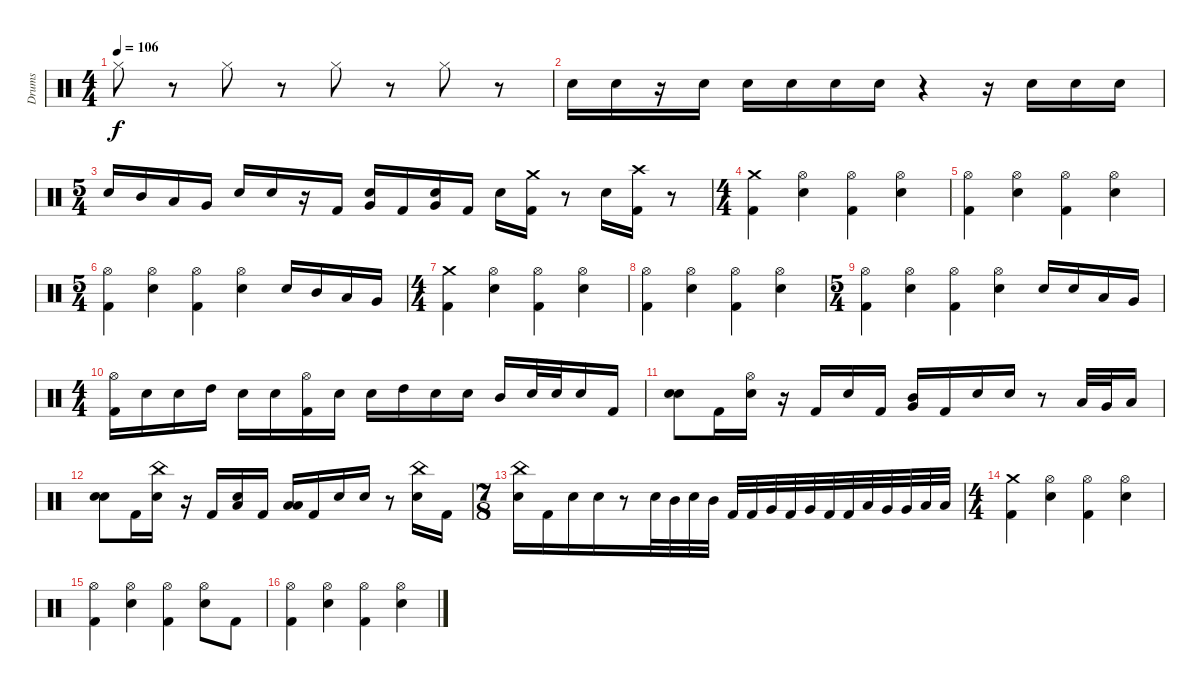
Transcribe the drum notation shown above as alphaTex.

\track ("Drums" "Drums") {instrument percussion}
\staff {score}
\articulation defaults
\ts (4 4)
\tempo 106
\clef neutral
\ks c "Hi-Hat (closed)".8{dy f}
r.8 "Hi-Hat (closed)".8 r.8 "Hi-Hat (closed)".8 r.8 "Hi-Hat (closed)".8 r.8 |
"Electric Snare (hit)".16 "Electric Snare (hit)".16 r.16 "Electric Snare (hit)".16 "Electric Snare (hit)".16 "Electric Snare (hit)".16 "Electric Snare (hit)".16 "Electric Snare (hit)".16 r.4 r.16 "Electric Snare (hit)".16 "Electric Snare (hit)".16 "Electric Snare (hit)".16 |
\ts (5 4)
"Electric Snare (hit)".16 "Mid Tom (hit)".16 "Low Tom (hit)".16 "Very Low Tom (hit)".16 "Electric Snare (hit)".16 "Electric Snare (hit)".16 r.16 "Kick (hit) 2".16 ("Electric Snare (hit)" "Very Low Tom (hit)").16 "Kick (hit) 2".16 ("Electric Snare (hit)" "Very Low Tom (hit)").16 "Kick (hit) 2".16 "Electric Snare (hit)".16 ("Crash medium (hit)" "Kick (hit) 2").16 r.8 "Electric Snare (hit)".16 ("Crash high (hit)" "Kick (hit) 2").16 r.8 |
\ts (4 4)
("Crash medium (hit)" "Kick (hit) 2").4 ("Hi-Hat (open)" "Electric Snare (hit)").4 ("Hi-Hat (open)" "Kick (hit) 2").4 ("Hi-Hat (open)" "Electric Snare (hit)").4 |
("Hi-Hat (open)" "Kick (hit) 2").4 ("Hi-Hat (open)" "Electric Snare (hit)").4 ("Hi-Hat (open)" "Kick (hit) 2").4 ("Hi-Hat (open)" "Electric Snare (hit)").4 |
\ts (5 4)
("Hi-Hat (open)" "Kick (hit) 2").4 ("Hi-Hat (open)" "Electric Snare (hit)").4 ("Hi-Hat (open)" "Kick (hit) 2").4 ("Hi-Hat (open)" "Electric Snare (hit)").4 "Electric Snare (hit)".16 "Mid Tom (hit)".16 "Low Tom (hit)".16 "Very Low Tom (hit)".16 |
\ts (4 4)
("Crash medium (hit)" "Kick (hit) 2").4 ("Hi-Hat (open)" "Electric Snare (hit)").4 ("Hi-Hat (open)" "Kick (hit) 2").4 ("Hi-Hat (open)" "Electric Snare (hit)").4 |
("Hi-Hat (open)" "Kick (hit) 2").4 ("Hi-Hat (open)" "Electric Snare (hit)").4 ("Hi-Hat (open)" "Kick (hit) 2").4 ("Hi-Hat (open)" "Electric Snare (hit)").4 |
\ts (5 4)
("Hi-Hat (open)" "Kick (hit) 2").4 ("Hi-Hat (open)" "Electric Snare (hit)").4 ("Hi-Hat (open)" "Kick (hit) 2").4 ("Hi-Hat (open)" "Electric Snare (hit)").4 "Electric Snare (hit)".16 "Electric Snare (hit)".16 "Low Tom (hit)".16 "Very Low Tom (hit)".16 |
\ts (4 4)
("Hi-Hat (open)" "Kick (hit) 2").16 "Electric Snare (hit)".16 "Electric Snare (hit)".16 "High Tom (hit)".16 "Electric Snare (hit)".16 "Electric Snare (hit)".16 ("Hi-Hat (open)" "Kick (hit) 2").16 "Electric Snare (hit)".16 "Electric Snare (hit)".16 "High Tom (hit)".16 "Electric Snare (hit)".16 "Electric Snare (hit)".16 "Mid Tom (hit)".16 "Electric Snare (hit)".32 "Electric Snare (hit)".32 "Electric Snare (hit)".16 "Kick (hit) 2".16 |
("Electric Snare (hit)" "Electric Snare (hit)").8 "Kick (hit) 2".16 ("Hi-Hat (open)" "Electric Snare (hit)").16 r.16 "Kick (hit) 2".16 "Electric Snare (hit)".16 "Kick (hit) 2".16 ("Mid Tom (hit)" "Very Low Tom (hit)").16 "Kick (hit) 2".16 "Electric Snare (hit)".16 "Electric Snare (hit)".16 r.8 "Low Tom (hit)".32 "Very Low Tom (hit)".32 "Low Floor Tom (hit)".16 |
("Electric Snare (hit)" "Electric Snare (hit)").8 "Kick (hit) 2".16 ("China (hit)" "Electric Snare (hit)").16 r.16 "Kick (hit) 2".16 ("Low Tom (hit)" "Electric Snare (hit)").16 "Kick (hit) 2".16 ("Low Tom (hit)" "Low Floor Tom (hit)").16 "Kick (hit) 2".16 "Electric Snare (hit)".16 "Electric Snare (hit)".16 r.8 ("China (hit)" "Electric Snare (hit)").16 "Kick (hit) 2".16 |
\ts (7 8)
("China (hit)" "Electric Snare (hit)").16 "Kick (hit) 2".16 "Electric Snare (hit)".16 "Electric Snare (hit)".16 r.8 "Electric Snare (hit)".32 "Mid Tom (hit)".32 "Electric Snare (hit)".32 "Mid Tom (hit)".32 "Kick (hit) 2".32 "Kick (hit) 2".32 "Very Low Tom (hit)".32 "Kick (hit) 2".32 "Very Low Tom (hit)".32 "Kick (hit) 2".32 "Kick (hit) 2".32 "Low Tom (hit)".32 "Very Low Tom (hit)".32 "Very Low Tom (hit)".32 "Low Floor Tom (hit)".32 "Low Floor Tom (hit)".32 |
\ts (4 4)
("Crash medium (hit)" "Kick (hit) 2").4 ("Hi-Hat (open)" "Electric Snare (hit)").4 ("Hi-Hat (open)" "Kick (hit) 2").4 ("Hi-Hat (open)" "Electric Snare (hit)").4 |
("Hi-Hat (open)" "Kick (hit) 2").4 ("Hi-Hat (open)" "Electric Snare (hit)").4 ("Hi-Hat (open)" "Kick (hit) 2").4 ("Hi-Hat (open)" "Electric Snare (hit)").8 "Kick (hit) 2".8 |
("Hi-Hat (open)" "Kick (hit) 2").4 ("Hi-Hat (open)" "Electric Snare (hit)").4 ("Hi-Hat (open)" "Kick (hit) 2").4 ("Hi-Hat (open)" "Electric Snare (hit)").4
